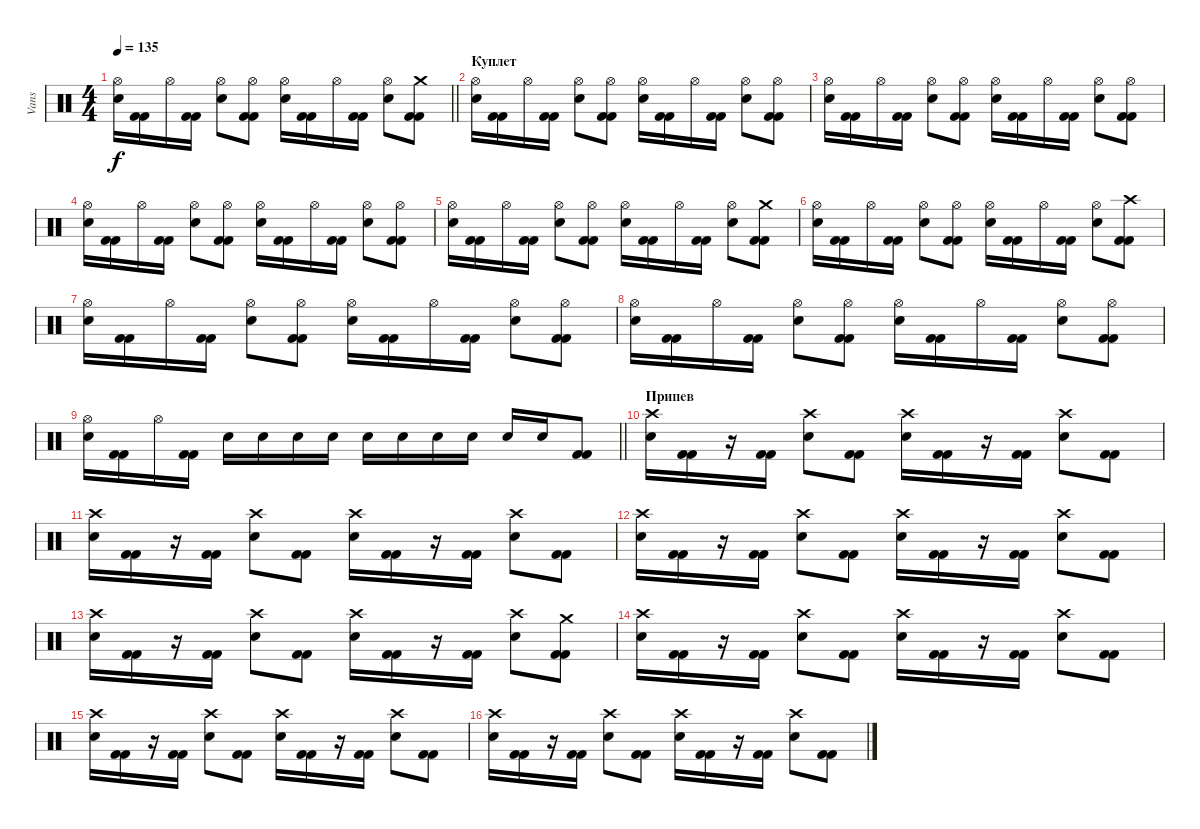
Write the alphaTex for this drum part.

\track ("Vans" "Vans") {instrument percussion}
\staff {score}
\articulation defaults
\ts (4 4)
\tempo 135
\clef neutral
\barLineRight lightlight
\ks c
("Hi-Hat (open)" "Electric Snare (hit)").16{dy f} ("Kick (hit) 2" "Kick (hit) 2").16 "Hi-Hat (open)".16 ("Kick (hit) 2" "Kick (hit) 2").16 ("Hi-Hat (open)" "Electric Snare (hit)").8 ("Hi-Hat (open)" "Kick (hit) 2" "Kick (hit) 2").8 ("Hi-Hat (open)" "Electric Snare (hit)").16 ("Kick (hit) 2" "Kick (hit) 2").16 "Hi-Hat (open)".16 ("Kick (hit) 2" "Kick (hit) 2").16 ("Hi-Hat (open)" "Electric Snare (hit)").8 ("Crash medium (hit)" "Kick (hit) 2" "Kick (hit) 2").8 |
\section ("" "Куплет")
("Hi-Hat (open)" "Electric Snare (hit)").16 ("Kick (hit) 2" "Kick (hit) 2").16 "Hi-Hat (open)".16 ("Kick (hit) 2" "Kick (hit) 2").16 ("Hi-Hat (open)" "Electric Snare (hit)").8 ("Hi-Hat (open)" "Kick (hit) 2" "Kick (hit) 2").8 ("Hi-Hat (open)" "Electric Snare (hit)").16 ("Kick (hit) 2" "Kick (hit) 2").16 "Hi-Hat (open)".16 ("Kick (hit) 2" "Kick (hit) 2").16 ("Hi-Hat (open)" "Electric Snare (hit)").8 ("Hi-Hat (open)" "Kick (hit) 2" "Kick (hit) 2").8 |
("Hi-Hat (open)" "Electric Snare (hit)").16 ("Kick (hit) 2" "Kick (hit) 2").16 "Hi-Hat (open)".16 ("Kick (hit) 2" "Kick (hit) 2").16 ("Hi-Hat (open)" "Electric Snare (hit)").8 ("Hi-Hat (open)" "Kick (hit) 2" "Kick (hit) 2").8 ("Hi-Hat (open)" "Electric Snare (hit)").16 ("Kick (hit) 2" "Kick (hit) 2").16 "Hi-Hat (open)".16 ("Kick (hit) 2" "Kick (hit) 2").16 ("Hi-Hat (open)" "Electric Snare (hit)").8 ("Hi-Hat (open)" "Kick (hit) 2" "Kick (hit) 2").8 |
("Hi-Hat (open)" "Electric Snare (hit)").16 ("Kick (hit) 2" "Kick (hit) 2").16 "Hi-Hat (open)".16 ("Kick (hit) 2" "Kick (hit) 2").16 ("Hi-Hat (open)" "Electric Snare (hit)").8 ("Hi-Hat (open)" "Kick (hit) 2" "Kick (hit) 2").8 ("Hi-Hat (open)" "Electric Snare (hit)").16 ("Kick (hit) 2" "Kick (hit) 2").16 "Hi-Hat (open)".16 ("Kick (hit) 2" "Kick (hit) 2").16 ("Hi-Hat (open)" "Electric Snare (hit)").8 ("Hi-Hat (open)" "Kick (hit) 2" "Kick (hit) 2").8 |
("Hi-Hat (open)" "Electric Snare (hit)").16 ("Kick (hit) 2" "Kick (hit) 2").16 "Hi-Hat (open)".16 ("Kick (hit) 2" "Kick (hit) 2").16 ("Hi-Hat (open)" "Electric Snare (hit)").8 ("Hi-Hat (open)" "Kick (hit) 2" "Kick (hit) 2").8 ("Hi-Hat (open)" "Electric Snare (hit)").16 ("Kick (hit) 2" "Kick (hit) 2").16 "Hi-Hat (open)".16 ("Kick (hit) 2" "Kick (hit) 2").16 ("Hi-Hat (open)" "Electric Snare (hit)").8 ("Crash medium (hit)" "Kick (hit) 2" "Kick (hit) 2").8 |
("Hi-Hat (open)" "Electric Snare (hit)").16 ("Kick (hit) 2" "Kick (hit) 2").16 "Hi-Hat (open)".16 ("Kick (hit) 2" "Kick (hit) 2").16 ("Hi-Hat (open)" "Electric Snare (hit)").8 ("Hi-Hat (open)" "Kick (hit) 2" "Kick (hit) 2").8 ("Hi-Hat (open)" "Electric Snare (hit)").16 ("Kick (hit) 2" "Kick (hit) 2").16 "Hi-Hat (open)".16 ("Kick (hit) 2" "Kick (hit) 2").16 ("Hi-Hat (open)" "Electric Snare (hit)").8 ("Crash high (hit)" "Kick (hit) 2" "Kick (hit) 2").8 |
("Hi-Hat (open)" "Electric Snare (hit)").16 ("Kick (hit) 2" "Kick (hit) 2").16 "Hi-Hat (open)".16 ("Kick (hit) 2" "Kick (hit) 2").16 ("Hi-Hat (open)" "Electric Snare (hit)").8 ("Hi-Hat (open)" "Kick (hit) 2" "Kick (hit) 2").8 ("Hi-Hat (open)" "Electric Snare (hit)").16 ("Kick (hit) 2" "Kick (hit) 2").16 "Hi-Hat (open)".16 ("Kick (hit) 2" "Kick (hit) 2").16 ("Hi-Hat (open)" "Electric Snare (hit)").8 ("Hi-Hat (open)" "Kick (hit) 2" "Kick (hit) 2").8 |
("Hi-Hat (open)" "Electric Snare (hit)").16 ("Kick (hit) 2" "Kick (hit) 2").16 "Hi-Hat (open)".16 ("Kick (hit) 2" "Kick (hit) 2").16 ("Hi-Hat (open)" "Electric Snare (hit)").8 ("Hi-Hat (open)" "Kick (hit) 2" "Kick (hit) 2").8 ("Hi-Hat (open)" "Electric Snare (hit)").16 ("Kick (hit) 2" "Kick (hit) 2").16 "Hi-Hat (open)".16 ("Kick (hit) 2" "Kick (hit) 2").16 ("Hi-Hat (open)" "Electric Snare (hit)").8 ("Hi-Hat (open)" "Kick (hit) 2" "Kick (hit) 2").8 |
\barLineRight lightlight
("Hi-Hat (open)" "Electric Snare (hit)").16 ("Kick (hit) 2" "Kick (hit) 2").16 "Hi-Hat (open)".16 ("Kick (hit) 2" "Kick (hit) 2").16 "Electric Snare (hit)".16 "Electric Snare (hit)".16 "Electric Snare (hit)".16 "Electric Snare (hit)".16 "Electric Snare (hit)".16 "Electric Snare (hit)".16 "Electric Snare (hit)".16 "Electric Snare (hit)".16 "Electric Snare (hit)".16 "Electric Snare (hit)".16 ("Kick (hit) 2" "Kick (hit) 2").8 |
\section ("" "Припев")
("Crash high (hit)" "Electric Snare (hit)").16 ("Kick (hit) 2" "Kick (hit) 2").16 r.16 ("Kick (hit) 2" "Kick (hit) 2").16 ("Crash high (hit)" "Electric Snare (hit)").8 ("Kick (hit) 2" "Kick (hit) 2").8 ("Crash high (hit)" "Electric Snare (hit)").16 ("Kick (hit) 2" "Kick (hit) 2").16 r.16 ("Kick (hit) 2" "Kick (hit) 2").16 ("Crash high (hit)" "Electric Snare (hit)").8 ("Kick (hit) 2" "Kick (hit) 2").8 |
("Crash high (hit)" "Electric Snare (hit)").16 ("Kick (hit) 2" "Kick (hit) 2").16 r.16 ("Kick (hit) 2" "Kick (hit) 2").16 ("Crash high (hit)" "Electric Snare (hit)").8 ("Kick (hit) 2" "Kick (hit) 2").8 ("Crash high (hit)" "Electric Snare (hit)").16 ("Kick (hit) 2" "Kick (hit) 2").16 r.16 ("Kick (hit) 2" "Kick (hit) 2").16 ("Crash high (hit)" "Electric Snare (hit)").8 ("Kick (hit) 2" "Kick (hit) 2").8 |
("Crash high (hit)" "Electric Snare (hit)").16 ("Kick (hit) 2" "Kick (hit) 2").16 r.16 ("Kick (hit) 2" "Kick (hit) 2").16 ("Crash high (hit)" "Electric Snare (hit)").8 ("Kick (hit) 2" "Kick (hit) 2").8 ("Crash high (hit)" "Electric Snare (hit)").16 ("Kick (hit) 2" "Kick (hit) 2").16 r.16 ("Kick (hit) 2" "Kick (hit) 2").16 ("Crash high (hit)" "Electric Snare (hit)").8 ("Kick (hit) 2" "Kick (hit) 2").8 |
("Crash high (hit)" "Electric Snare (hit)").16 ("Kick (hit) 2" "Kick (hit) 2").16 r.16 ("Kick (hit) 2" "Kick (hit) 2").16 ("Crash high (hit)" "Electric Snare (hit)").8 ("Kick (hit) 2" "Kick (hit) 2").8 ("Crash high (hit)" "Electric Snare (hit)").16 ("Kick (hit) 2" "Kick (hit) 2").16 r.16 ("Kick (hit) 2" "Kick (hit) 2").16 ("Crash high (hit)" "Electric Snare (hit)").8 ("Crash medium (hit)" "Kick (hit) 2" "Kick (hit) 2").8 |
("Crash high (hit)" "Electric Snare (hit)").16 ("Kick (hit) 2" "Kick (hit) 2").16 r.16 ("Kick (hit) 2" "Kick (hit) 2").16 ("Crash high (hit)" "Electric Snare (hit)").8 ("Kick (hit) 2" "Kick (hit) 2").8 ("Crash high (hit)" "Electric Snare (hit)").16 ("Kick (hit) 2" "Kick (hit) 2").16 r.16 ("Kick (hit) 2" "Kick (hit) 2").16 ("Crash high (hit)" "Electric Snare (hit)").8 ("Kick (hit) 2" "Kick (hit) 2").8 |
("Crash high (hit)" "Electric Snare (hit)").16 ("Kick (hit) 2" "Kick (hit) 2").16 r.16 ("Kick (hit) 2" "Kick (hit) 2").16 ("Crash high (hit)" "Electric Snare (hit)").8 ("Kick (hit) 2" "Kick (hit) 2").8 ("Crash high (hit)" "Electric Snare (hit)").16 ("Kick (hit) 2" "Kick (hit) 2").16 r.16 ("Kick (hit) 2" "Kick (hit) 2").16 ("Crash high (hit)" "Electric Snare (hit)").8 ("Kick (hit) 2" "Kick (hit) 2").8 |
("Crash high (hit)" "Electric Snare (hit)").16 ("Kick (hit) 2" "Kick (hit) 2").16 r.16 ("Kick (hit) 2" "Kick (hit) 2").16 ("Crash high (hit)" "Electric Snare (hit)").8 ("Kick (hit) 2" "Kick (hit) 2").8 ("Crash high (hit)" "Electric Snare (hit)").16 ("Kick (hit) 2" "Kick (hit) 2").16 r.16 ("Kick (hit) 2" "Kick (hit) 2").16 ("Crash high (hit)" "Electric Snare (hit)").8 ("Kick (hit) 2" "Kick (hit) 2").8
